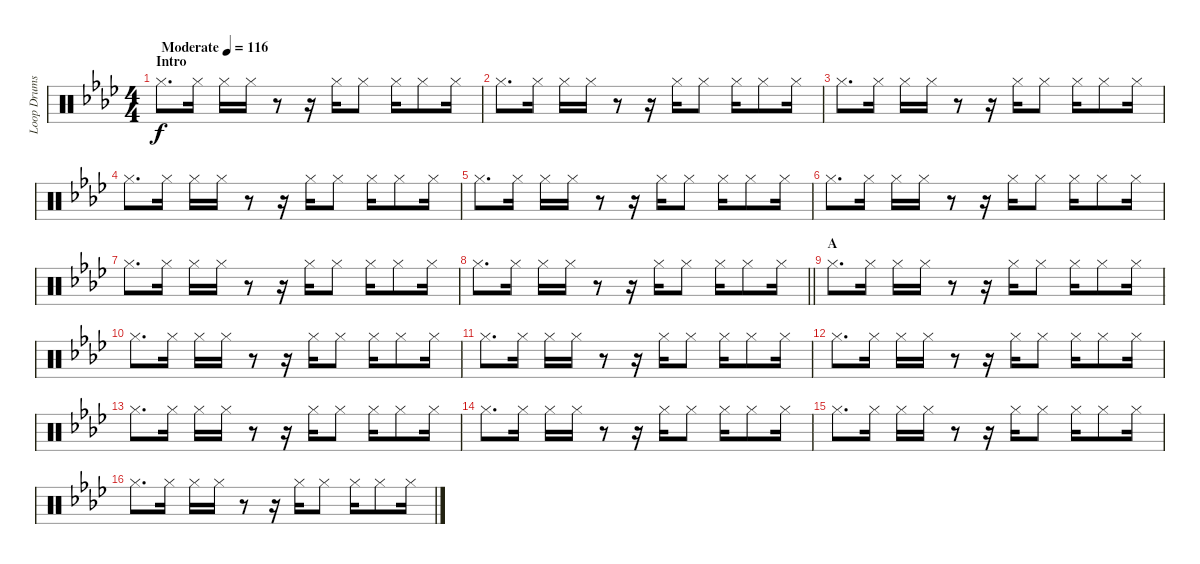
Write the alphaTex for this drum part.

\track ("Loop Drums II" "Loop Drums") {instrument percussion}
\staff {score}
\articulation defaults
\ts (4 4)
\section ("" "Intro")
\tempo (116 "Moderate")
\clef neutral
\ks ab "Hi-Hat (closed)".8{d dy f} "Hi-Hat (closed)".16 "Hi-Hat (closed)".16 "Hi-Hat (closed)".16
r.8 r.16 "Hi-Hat (closed)".16 "Hi-Hat (closed)".8 "Hi-Hat (closed)".16 "Hi-Hat (closed)".8 "Hi-Hat (closed)".16 |
"Hi-Hat (closed)".8{d} "Hi-Hat (closed)".16 "Hi-Hat (closed)".16 "Hi-Hat (closed)".16 r.8 r.16 "Hi-Hat (closed)".16 "Hi-Hat (closed)".8 "Hi-Hat (closed)".16 "Hi-Hat (closed)".8 "Hi-Hat (closed)".16 |
"Hi-Hat (closed)".8{d} "Hi-Hat (closed)".16 "Hi-Hat (closed)".16 "Hi-Hat (closed)".16 r.8 r.16 "Hi-Hat (closed)".16 "Hi-Hat (closed)".8 "Hi-Hat (closed)".16 "Hi-Hat (closed)".8 "Hi-Hat (closed)".16 |
"Hi-Hat (closed)".8{d} "Hi-Hat (closed)".16 "Hi-Hat (closed)".16 "Hi-Hat (closed)".16 r.8 r.16 "Hi-Hat (closed)".16 "Hi-Hat (closed)".8 "Hi-Hat (closed)".16 "Hi-Hat (closed)".8 "Hi-Hat (closed)".16 |
"Hi-Hat (closed)".8{d} "Hi-Hat (closed)".16 "Hi-Hat (closed)".16 "Hi-Hat (closed)".16 r.8 r.16 "Hi-Hat (closed)".16 "Hi-Hat (closed)".8 "Hi-Hat (closed)".16 "Hi-Hat (closed)".8 "Hi-Hat (closed)".16 |
"Hi-Hat (closed)".8{d} "Hi-Hat (closed)".16 "Hi-Hat (closed)".16 "Hi-Hat (closed)".16 r.8 r.16 "Hi-Hat (closed)".16 "Hi-Hat (closed)".8 "Hi-Hat (closed)".16 "Hi-Hat (closed)".8 "Hi-Hat (closed)".16 |
"Hi-Hat (closed)".8{d} "Hi-Hat (closed)".16 "Hi-Hat (closed)".16 "Hi-Hat (closed)".16 r.8 r.16 "Hi-Hat (closed)".16 "Hi-Hat (closed)".8 "Hi-Hat (closed)".16 "Hi-Hat (closed)".8 "Hi-Hat (closed)".16 |
\barLineRight lightlight "Hi-Hat (closed)".8{d} "Hi-Hat (closed)".16 "Hi-Hat (closed)".16 "Hi-Hat (closed)".16
r.8 r.16 "Hi-Hat (closed)".16 "Hi-Hat (closed)".8 "Hi-Hat (closed)".16 "Hi-Hat (closed)".8 "Hi-Hat (closed)".16 |
\section ("" "A")
"Hi-Hat (closed)".8{d} "Hi-Hat (closed)".16 "Hi-Hat (closed)".16 "Hi-Hat (closed)".16 r.8 r.16 "Hi-Hat (closed)".16 "Hi-Hat (closed)".8 "Hi-Hat (closed)".16 "Hi-Hat (closed)".8 "Hi-Hat (closed)".16 |
"Hi-Hat (closed)".8{d} "Hi-Hat (closed)".16 "Hi-Hat (closed)".16 "Hi-Hat (closed)".16 r.8 r.16 "Hi-Hat (closed)".16 "Hi-Hat (closed)".8 "Hi-Hat (closed)".16 "Hi-Hat (closed)".8 "Hi-Hat (closed)".16 |
"Hi-Hat (closed)".8{d} "Hi-Hat (closed)".16 "Hi-Hat (closed)".16 "Hi-Hat (closed)".16 r.8 r.16 "Hi-Hat (closed)".16 "Hi-Hat (closed)".8 "Hi-Hat (closed)".16 "Hi-Hat (closed)".8 "Hi-Hat (closed)".16 |
"Hi-Hat (closed)".8{d} "Hi-Hat (closed)".16 "Hi-Hat (closed)".16 "Hi-Hat (closed)".16 r.8 r.16 "Hi-Hat (closed)".16 "Hi-Hat (closed)".8 "Hi-Hat (closed)".16 "Hi-Hat (closed)".8 "Hi-Hat (closed)".16 |
"Hi-Hat (closed)".8{d} "Hi-Hat (closed)".16 "Hi-Hat (closed)".16 "Hi-Hat (closed)".16 r.8 r.16 "Hi-Hat (closed)".16 "Hi-Hat (closed)".8 "Hi-Hat (closed)".16 "Hi-Hat (closed)".8 "Hi-Hat (closed)".16 |
"Hi-Hat (closed)".8{d} "Hi-Hat (closed)".16 "Hi-Hat (closed)".16 "Hi-Hat (closed)".16 r.8 r.16 "Hi-Hat (closed)".16 "Hi-Hat (closed)".8 "Hi-Hat (closed)".16 "Hi-Hat (closed)".8 "Hi-Hat (closed)".16 |
"Hi-Hat (closed)".8{d} "Hi-Hat (closed)".16 "Hi-Hat (closed)".16 "Hi-Hat (closed)".16 r.8 r.16 "Hi-Hat (closed)".16 "Hi-Hat (closed)".8 "Hi-Hat (closed)".16 "Hi-Hat (closed)".8 "Hi-Hat (closed)".16 |
"Hi-Hat (closed)".8{d} "Hi-Hat (closed)".16 "Hi-Hat (closed)".16 "Hi-Hat (closed)".16 r.8 r.16 "Hi-Hat (closed)".16 "Hi-Hat (closed)".8 "Hi-Hat (closed)".16 "Hi-Hat (closed)".8 "Hi-Hat (closed)".16
